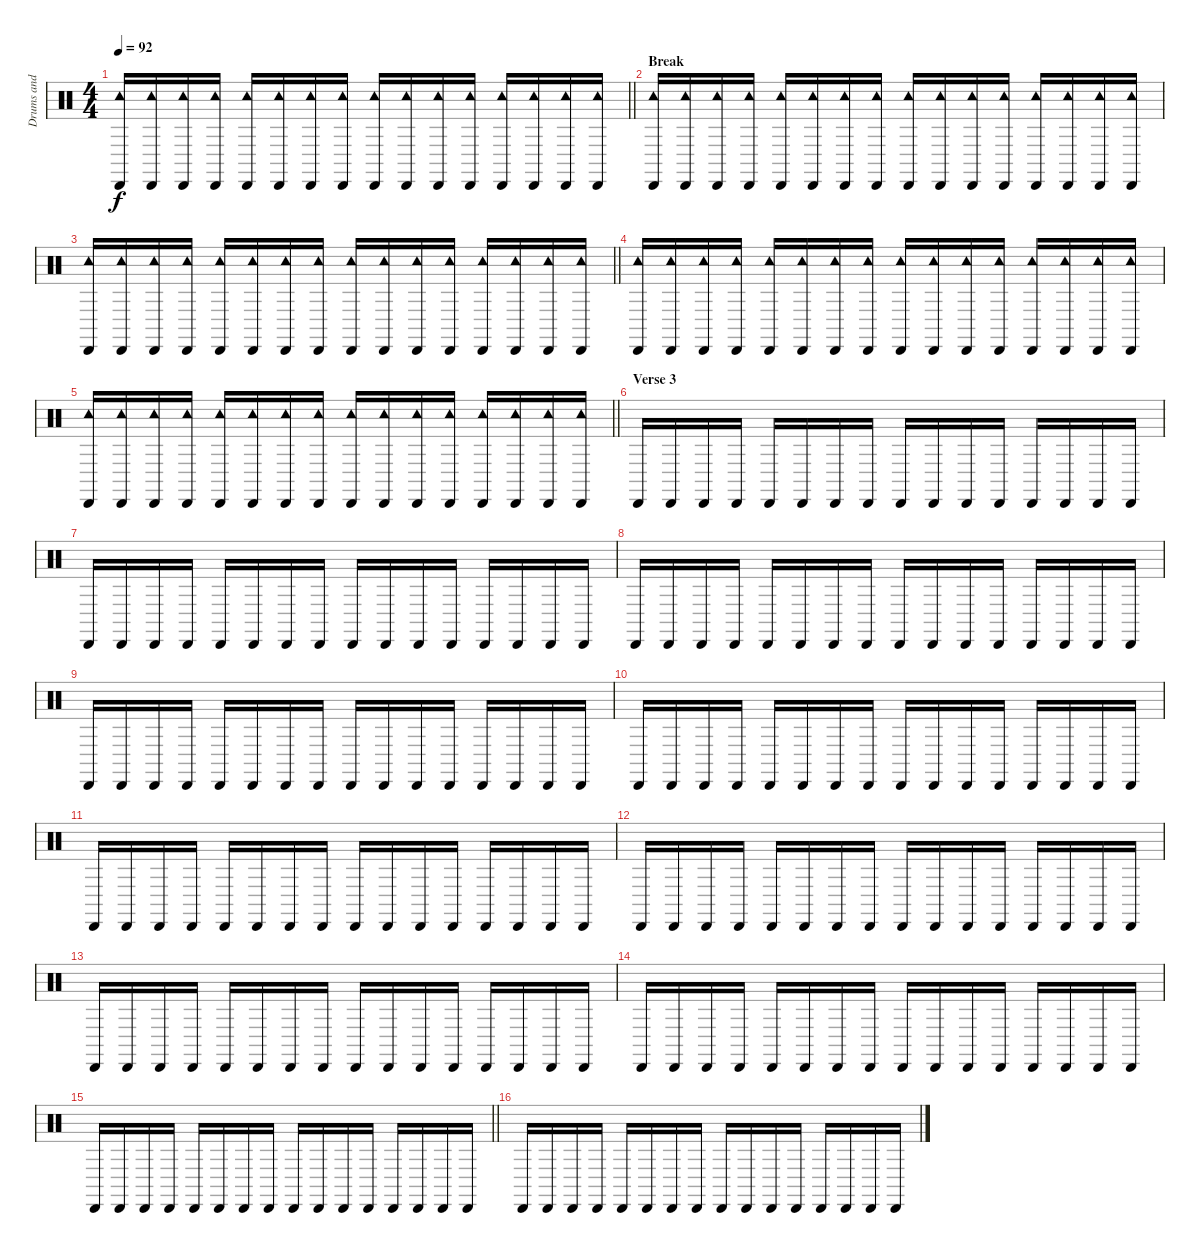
\track ("Drums and Percussions" "Drums and ") {instrument percussion}
\staff {score}
\articulation defaults
\ts (4 4)
\tempo 92
\clef neutral
\barLineRight lightlight
\ks c
("Cabasa (hit)" "Tambourine (hit)").16{dy f} ("Cabasa (hit)" "Tambourine (hit)").16 ("Cabasa (hit)" "Tambourine (hit)").16 ("Cabasa (hit)" "Tambourine (hit)").16 ("Cabasa (hit)" "Tambourine (hit)").16 ("Cabasa (hit)" "Tambourine (hit)").16 ("Cabasa (hit)" "Tambourine (hit)").16 ("Cabasa (hit)" "Tambourine (hit)").16 ("Cabasa (hit)" "Tambourine (hit)").16 ("Cabasa (hit)" "Tambourine (hit)").16 ("Cabasa (hit)" "Tambourine (hit)").16 ("Cabasa (hit)" "Tambourine (hit)").16 ("Cabasa (hit)" "Tambourine (hit)").16 ("Cabasa (hit)" "Tambourine (hit)").16 ("Cabasa (hit)" "Tambourine (hit)").16 ("Cabasa (hit)" "Tambourine (hit)").16 |
\section ("" "Break")
("Cabasa (hit)" "Tambourine (hit)").16 ("Cabasa (hit)" "Tambourine (hit)").16 ("Cabasa (hit)" "Tambourine (hit)").16 ("Cabasa (hit)" "Tambourine (hit)").16 ("Cabasa (hit)" "Tambourine (hit)").16 ("Cabasa (hit)" "Tambourine (hit)").16 ("Cabasa (hit)" "Tambourine (hit)").16 ("Cabasa (hit)" "Tambourine (hit)").16 ("Cabasa (hit)" "Tambourine (hit)").16 ("Cabasa (hit)" "Tambourine (hit)").16 ("Cabasa (hit)" "Tambourine (hit)").16 ("Cabasa (hit)" "Tambourine (hit)").16 ("Cabasa (hit)" "Tambourine (hit)").16 ("Cabasa (hit)" "Tambourine (hit)").16 ("Cabasa (hit)" "Tambourine (hit)").16 ("Cabasa (hit)" "Tambourine (hit)").16 |
\barLineRight lightlight
("Cabasa (hit)" "Tambourine (hit)").16 ("Cabasa (hit)" "Tambourine (hit)").16 ("Cabasa (hit)" "Tambourine (hit)").16 ("Cabasa (hit)" "Tambourine (hit)").16 ("Cabasa (hit)" "Tambourine (hit)").16 ("Cabasa (hit)" "Tambourine (hit)").16 ("Cabasa (hit)" "Tambourine (hit)").16 ("Cabasa (hit)" "Tambourine (hit)").16 ("Cabasa (hit)" "Tambourine (hit)").16 ("Cabasa (hit)" "Tambourine (hit)").16 ("Cabasa (hit)" "Tambourine (hit)").16 ("Cabasa (hit)" "Tambourine (hit)").16 ("Cabasa (hit)" "Tambourine (hit)").16 ("Cabasa (hit)" "Tambourine (hit)").16 ("Cabasa (hit)" "Tambourine (hit)").16 ("Cabasa (hit)" "Tambourine (hit)").16 |
("Cabasa (hit)" "Tambourine (hit)").16 ("Cabasa (hit)" "Tambourine (hit)").16 ("Cabasa (hit)" "Tambourine (hit)").16 ("Cabasa (hit)" "Tambourine (hit)").16 ("Cabasa (hit)" "Tambourine (hit)").16 ("Cabasa (hit)" "Tambourine (hit)").16 ("Cabasa (hit)" "Tambourine (hit)").16 ("Cabasa (hit)" "Tambourine (hit)").16 ("Cabasa (hit)" "Tambourine (hit)").16 ("Cabasa (hit)" "Tambourine (hit)").16 ("Cabasa (hit)" "Tambourine (hit)").16 ("Cabasa (hit)" "Tambourine (hit)").16 ("Cabasa (hit)" "Tambourine (hit)").16 ("Cabasa (hit)" "Tambourine (hit)").16 ("Cabasa (hit)" "Tambourine (hit)").16 ("Cabasa (hit)" "Tambourine (hit)").16 |
\barLineRight lightlight
("Cabasa (hit)" "Tambourine (hit)").16 ("Cabasa (hit)" "Tambourine (hit)").16 ("Cabasa (hit)" "Tambourine (hit)").16 ("Cabasa (hit)" "Tambourine (hit)").16 ("Cabasa (hit)" "Tambourine (hit)").16 ("Cabasa (hit)" "Tambourine (hit)").16 ("Cabasa (hit)" "Tambourine (hit)").16 ("Cabasa (hit)" "Tambourine (hit)").16 ("Cabasa (hit)" "Tambourine (hit)").16 ("Cabasa (hit)" "Tambourine (hit)").16 ("Cabasa (hit)" "Tambourine (hit)").16 ("Cabasa (hit)" "Tambourine (hit)").16 ("Cabasa (hit)" "Tambourine (hit)").16 ("Cabasa (hit)" "Tambourine (hit)").16 ("Cabasa (hit)" "Tambourine (hit)").16 ("Cabasa (hit)" "Tambourine (hit)").16 |
\section ("" "Verse 3")
"Cabasa (hit)".16 "Cabasa (hit)".16 "Cabasa (hit)".16 "Cabasa (hit)".16 "Cabasa (hit)".16 "Cabasa (hit)".16 "Cabasa (hit)".16 "Cabasa (hit)".16 "Cabasa (hit)".16 "Cabasa (hit)".16 "Cabasa (hit)".16 "Cabasa (hit)".16 "Cabasa (hit)".16 "Cabasa (hit)".16 "Cabasa (hit)".16 "Cabasa (hit)".16 |
"Cabasa (hit)".16 "Cabasa (hit)".16 "Cabasa (hit)".16 "Cabasa (hit)".16 "Cabasa (hit)".16 "Cabasa (hit)".16 "Cabasa (hit)".16 "Cabasa (hit)".16 "Cabasa (hit)".16 "Cabasa (hit)".16 "Cabasa (hit)".16 "Cabasa (hit)".16 "Cabasa (hit)".16 "Cabasa (hit)".16 "Cabasa (hit)".16 "Cabasa (hit)".16 |
"Cabasa (hit)".16 "Cabasa (hit)".16 "Cabasa (hit)".16 "Cabasa (hit)".16 "Cabasa (hit)".16 "Cabasa (hit)".16 "Cabasa (hit)".16 "Cabasa (hit)".16 "Cabasa (hit)".16 "Cabasa (hit)".16 "Cabasa (hit)".16 "Cabasa (hit)".16 "Cabasa (hit)".16 "Cabasa (hit)".16 "Cabasa (hit)".16 "Cabasa (hit)".16 |
"Cabasa (hit)".16 "Cabasa (hit)".16 "Cabasa (hit)".16 "Cabasa (hit)".16 "Cabasa (hit)".16 "Cabasa (hit)".16 "Cabasa (hit)".16 "Cabasa (hit)".16 "Cabasa (hit)".16 "Cabasa (hit)".16 "Cabasa (hit)".16 "Cabasa (hit)".16 "Cabasa (hit)".16 "Cabasa (hit)".16 "Cabasa (hit)".16 "Cabasa (hit)".16 |
"Cabasa (hit)".16 "Cabasa (hit)".16 "Cabasa (hit)".16 "Cabasa (hit)".16 "Cabasa (hit)".16 "Cabasa (hit)".16 "Cabasa (hit)".16 "Cabasa (hit)".16 "Cabasa (hit)".16 "Cabasa (hit)".16 "Cabasa (hit)".16 "Cabasa (hit)".16 "Cabasa (hit)".16 "Cabasa (hit)".16 "Cabasa (hit)".16 "Cabasa (hit)".16 |
"Cabasa (hit)".16 "Cabasa (hit)".16 "Cabasa (hit)".16 "Cabasa (hit)".16 "Cabasa (hit)".16 "Cabasa (hit)".16 "Cabasa (hit)".16 "Cabasa (hit)".16 "Cabasa (hit)".16 "Cabasa (hit)".16 "Cabasa (hit)".16 "Cabasa (hit)".16 "Cabasa (hit)".16 "Cabasa (hit)".16 "Cabasa (hit)".16 "Cabasa (hit)".16 |
"Cabasa (hit)".16 "Cabasa (hit)".16 "Cabasa (hit)".16 "Cabasa (hit)".16 "Cabasa (hit)".16 "Cabasa (hit)".16 "Cabasa (hit)".16 "Cabasa (hit)".16 "Cabasa (hit)".16 "Cabasa (hit)".16 "Cabasa (hit)".16 "Cabasa (hit)".16 "Cabasa (hit)".16 "Cabasa (hit)".16 "Cabasa (hit)".16 "Cabasa (hit)".16 |
"Cabasa (hit)".16 "Cabasa (hit)".16 "Cabasa (hit)".16 "Cabasa (hit)".16 "Cabasa (hit)".16 "Cabasa (hit)".16 "Cabasa (hit)".16 "Cabasa (hit)".16 "Cabasa (hit)".16 "Cabasa (hit)".16 "Cabasa (hit)".16 "Cabasa (hit)".16 "Cabasa (hit)".16 "Cabasa (hit)".16 "Cabasa (hit)".16 "Cabasa (hit)".16 |
"Cabasa (hit)".16 "Cabasa (hit)".16 "Cabasa (hit)".16 "Cabasa (hit)".16 "Cabasa (hit)".16 "Cabasa (hit)".16 "Cabasa (hit)".16 "Cabasa (hit)".16 "Cabasa (hit)".16 "Cabasa (hit)".16 "Cabasa (hit)".16 "Cabasa (hit)".16 "Cabasa (hit)".16 "Cabasa (hit)".16 "Cabasa (hit)".16 "Cabasa (hit)".16 |
\barLineRight lightlight "Cabasa (hit)".16 "Cabasa (hit)".16 "Cabasa (hit)".16 "Cabasa (hit)".16 "Cabasa (hit)".16 "Cabasa (hit)".16 "Cabasa (hit)".16 "Cabasa (hit)".16 "Cabasa (hit)".16 "Cabasa (hit)".16 "Cabasa (hit)".16 "Cabasa (hit)".16 "Cabasa (hit)".16 "Cabasa (hit)".16 "Cabasa (hit)".16 "Cabasa (hit)".16
|
"Cabasa (hit)".16 "Cabasa (hit)".16 "Cabasa (hit)".16 "Cabasa (hit)".16 "Cabasa (hit)".16 "Cabasa (hit)".16 "Cabasa (hit)".16 "Cabasa (hit)".16 "Cabasa (hit)".16 "Cabasa (hit)".16 "Cabasa (hit)".16 "Cabasa (hit)".16 "Cabasa (hit)".16 "Cabasa (hit)".16 "Cabasa (hit)".16 "Cabasa (hit)".16
